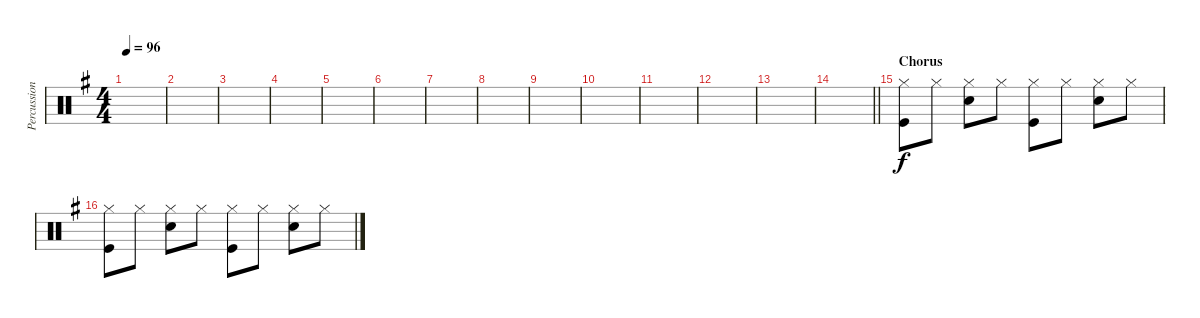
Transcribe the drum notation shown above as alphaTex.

\track ("Percussion" "Percussion") {instrument percussion}
\staff {score}
\articulation defaults
\ts (4 4)
\tempo 96
\clef neutral
\ks g
|
|
|
|
|
|
|
|
|
|
|
|
|
\barLineRight lightlight
|
\section ("" "Chorus")
("Hi-Hat (closed)" "Kick (hit)").8 "Hi-Hat (closed)".8 ("Hi-Hat (closed)" "Snare (hit) 2").8 "Hi-Hat (closed)".8 ("Hi-Hat (closed)" "Kick (hit)").8 "Hi-Hat (closed)".8 ("Hi-Hat (closed)" "Snare (hit) 2").8 "Hi-Hat (closed)".8 |
("Hi-Hat (closed)" "Kick (hit)").8 "Hi-Hat (closed)".8 ("Hi-Hat (closed)" "Snare (hit) 2").8 "Hi-Hat (closed)".8 ("Hi-Hat (closed)" "Kick (hit)").8 "Hi-Hat (closed)".8 ("Hi-Hat (closed)" "Snare (hit) 2").8 "Hi-Hat (closed)".8
